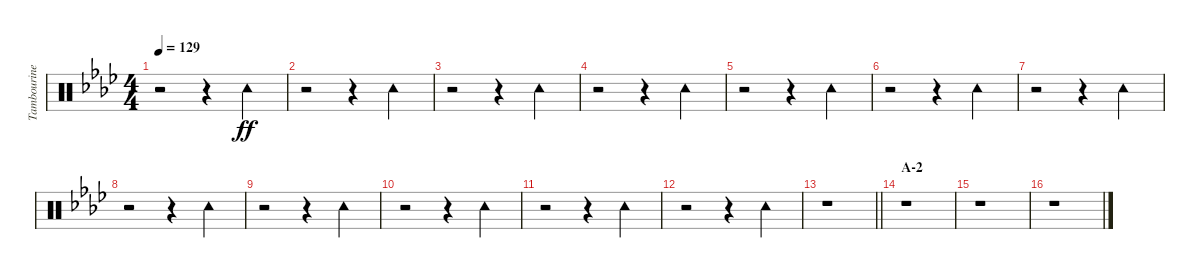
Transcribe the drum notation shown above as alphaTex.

\track ("Tambourine" "Tambourine") {instrument percussion}
\staff {score}
\articulation defaults
\ts (4 4)
\tempo 129
\clef neutral
\ks ab
r.2{dy ff} r.4 "Tambourine (hit)".4 |
r.2 r.4 "Tambourine (hit)".4 |
r.2 r.4 "Tambourine (hit)".4 |
r.2 r.4 "Tambourine (hit)".4 |
r.2 r.4 "Tambourine (hit)".4 |
r.2 r.4 "Tambourine (hit)".4 |
r.2 r.4 "Tambourine (hit)".4 |
r.2 r.4 "Tambourine (hit)".4 |
r.2 r.4 "Tambourine (hit)".4 |
r.2 r.4 "Tambourine (hit)".4 |
r.2 r.4 "Tambourine (hit)".4 |
r.2 r.4 "Tambourine (hit)".4 |
\barLineRight lightlight
r.1 |
\section ("" "A-2")
r.1 |
r.1 |
r.1
